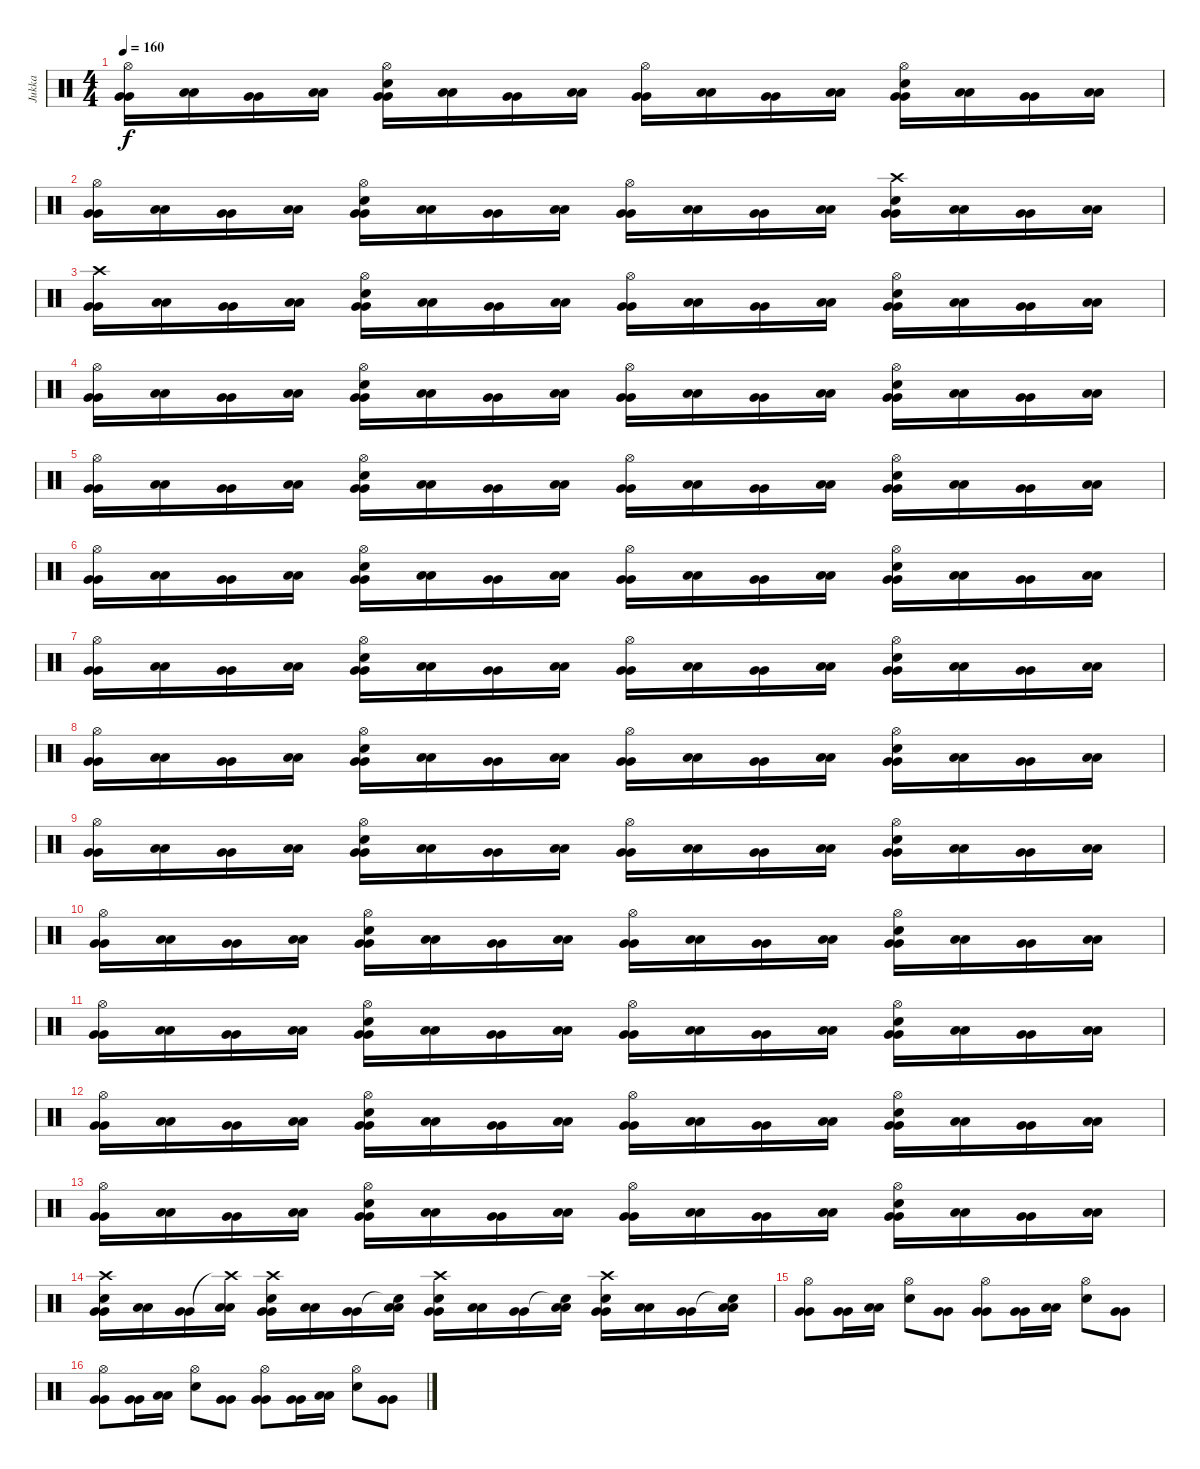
\track ("Jukka" "Jukka") {instrument percussion}
\staff {score}
\articulation defaults
\ts (4 4)
\tempo 160
\clef neutral
\ks c
("Hi-Hat (open)" "Very Low Tom (hit)" "Very Low Tom (hit)").16{dy f} ("Low Floor Tom (hit)" "Low Floor Tom (hit)").16 ("Very Low Tom (hit)" "Very Low Tom (hit)").16 ("Low Floor Tom (hit)" "Low Floor Tom (hit)").16 ("Hi-Hat (open)" "Electric Snare (hit)" "Very Low Tom (hit)" "Very Low Tom (hit)").16 ("Low Floor Tom (hit)" "Low Floor Tom (hit)").16 ("Very Low Tom (hit)" "Very Low Tom (hit)").16 ("Low Floor Tom (hit)" "Low Floor Tom (hit)").16 ("Hi-Hat (open)" "Very Low Tom (hit)" "Very Low Tom (hit)").16 ("Low Floor Tom (hit)" "Low Floor Tom (hit)").16 ("Very Low Tom (hit)" "Very Low Tom (hit)").16 ("Low Floor Tom (hit)" "Low Floor Tom (hit)").16 ("Hi-Hat (open)" "Electric Snare (hit)" "Very Low Tom (hit)" "Very Low Tom (hit)").16 ("Low Floor Tom (hit)" "Low Floor Tom (hit)").16 ("Very Low Tom (hit)" "Very Low Tom (hit)").16 ("Low Floor Tom (hit)" "Low Floor Tom (hit)").16 |
("Hi-Hat (open)" "Very Low Tom (hit)" "Very Low Tom (hit)").16 ("Low Floor Tom (hit)" "Low Floor Tom (hit)").16 ("Very Low Tom (hit)" "Very Low Tom (hit)").16 ("Low Floor Tom (hit)" "Low Floor Tom (hit)").16 ("Hi-Hat (open)" "Electric Snare (hit)" "Very Low Tom (hit)" "Very Low Tom (hit)").16 ("Low Floor Tom (hit)" "Low Floor Tom (hit)").16 ("Very Low Tom (hit)" "Very Low Tom (hit)").16 ("Low Floor Tom (hit)" "Low Floor Tom (hit)").16 ("Hi-Hat (open)" "Very Low Tom (hit)" "Very Low Tom (hit)").16 ("Low Floor Tom (hit)" "Low Floor Tom (hit)").16 ("Very Low Tom (hit)" "Very Low Tom (hit)").16 ("Low Floor Tom (hit)" "Low Floor Tom (hit)").16 ("Crash high (hit)" "Electric Snare (hit)" "Very Low Tom (hit)" "Very Low Tom (hit)").16 ("Low Floor Tom (hit)" "Low Floor Tom (hit)").16 ("Very Low Tom (hit)" "Very Low Tom (hit)").16 ("Low Floor Tom (hit)" "Low Floor Tom (hit)").16 |
("Crash high (hit)" "Very Low Tom (hit)" "Very Low Tom (hit)").16 ("Low Floor Tom (hit)" "Low Floor Tom (hit)").16 ("Very Low Tom (hit)" "Very Low Tom (hit)").16 ("Low Floor Tom (hit)" "Low Floor Tom (hit)").16 ("Hi-Hat (open)" "Electric Snare (hit)" "Very Low Tom (hit)" "Very Low Tom (hit)").16 ("Low Floor Tom (hit)" "Low Floor Tom (hit)").16 ("Very Low Tom (hit)" "Very Low Tom (hit)").16 ("Low Floor Tom (hit)" "Low Floor Tom (hit)").16 ("Hi-Hat (open)" "Very Low Tom (hit)" "Very Low Tom (hit)").16 ("Low Floor Tom (hit)" "Low Floor Tom (hit)").16 ("Very Low Tom (hit)" "Very Low Tom (hit)").16 ("Low Floor Tom (hit)" "Low Floor Tom (hit)").16 ("Hi-Hat (open)" "Electric Snare (hit)" "Very Low Tom (hit)" "Very Low Tom (hit)").16 ("Low Floor Tom (hit)" "Low Floor Tom (hit)").16 ("Very Low Tom (hit)" "Very Low Tom (hit)").16 ("Low Floor Tom (hit)" "Low Floor Tom (hit)").16 |
("Hi-Hat (open)" "Very Low Tom (hit)" "Very Low Tom (hit)").16 ("Low Floor Tom (hit)" "Low Floor Tom (hit)").16 ("Very Low Tom (hit)" "Very Low Tom (hit)").16 ("Low Floor Tom (hit)" "Low Floor Tom (hit)").16 ("Hi-Hat (open)" "Electric Snare (hit)" "Very Low Tom (hit)" "Very Low Tom (hit)").16 ("Low Floor Tom (hit)" "Low Floor Tom (hit)").16 ("Very Low Tom (hit)" "Very Low Tom (hit)").16 ("Low Floor Tom (hit)" "Low Floor Tom (hit)").16 ("Hi-Hat (open)" "Very Low Tom (hit)" "Very Low Tom (hit)").16 ("Low Floor Tom (hit)" "Low Floor Tom (hit)").16 ("Very Low Tom (hit)" "Very Low Tom (hit)").16 ("Low Floor Tom (hit)" "Low Floor Tom (hit)").16 ("Hi-Hat (open)" "Electric Snare (hit)" "Very Low Tom (hit)" "Very Low Tom (hit)").16 ("Low Floor Tom (hit)" "Low Floor Tom (hit)").16 ("Very Low Tom (hit)" "Very Low Tom (hit)").16 ("Low Floor Tom (hit)" "Low Floor Tom (hit)").16 |
("Hi-Hat (open)" "Very Low Tom (hit)" "Very Low Tom (hit)").16 ("Low Floor Tom (hit)" "Low Floor Tom (hit)").16 ("Very Low Tom (hit)" "Very Low Tom (hit)").16 ("Low Floor Tom (hit)" "Low Floor Tom (hit)").16 ("Hi-Hat (open)" "Electric Snare (hit)" "Very Low Tom (hit)" "Very Low Tom (hit)").16 ("Low Floor Tom (hit)" "Low Floor Tom (hit)").16 ("Very Low Tom (hit)" "Very Low Tom (hit)").16 ("Low Floor Tom (hit)" "Low Floor Tom (hit)").16 ("Hi-Hat (open)" "Very Low Tom (hit)" "Very Low Tom (hit)").16 ("Low Floor Tom (hit)" "Low Floor Tom (hit)").16 ("Very Low Tom (hit)" "Very Low Tom (hit)").16 ("Low Floor Tom (hit)" "Low Floor Tom (hit)").16 ("Hi-Hat (open)" "Electric Snare (hit)" "Very Low Tom (hit)" "Very Low Tom (hit)").16 ("Low Floor Tom (hit)" "Low Floor Tom (hit)").16 ("Very Low Tom (hit)" "Very Low Tom (hit)").16 ("Low Floor Tom (hit)" "Low Floor Tom (hit)").16 |
("Hi-Hat (open)" "Very Low Tom (hit)" "Very Low Tom (hit)").16 ("Low Floor Tom (hit)" "Low Floor Tom (hit)").16 ("Very Low Tom (hit)" "Very Low Tom (hit)").16 ("Low Floor Tom (hit)" "Low Floor Tom (hit)").16 ("Hi-Hat (open)" "Electric Snare (hit)" "Very Low Tom (hit)" "Very Low Tom (hit)").16 ("Low Floor Tom (hit)" "Low Floor Tom (hit)").16 ("Very Low Tom (hit)" "Very Low Tom (hit)").16 ("Low Floor Tom (hit)" "Low Floor Tom (hit)").16 ("Hi-Hat (open)" "Very Low Tom (hit)" "Very Low Tom (hit)").16 ("Low Floor Tom (hit)" "Low Floor Tom (hit)").16 ("Very Low Tom (hit)" "Very Low Tom (hit)").16 ("Low Floor Tom (hit)" "Low Floor Tom (hit)").16 ("Hi-Hat (open)" "Electric Snare (hit)" "Very Low Tom (hit)" "Very Low Tom (hit)").16 ("Low Floor Tom (hit)" "Low Floor Tom (hit)").16 ("Very Low Tom (hit)" "Very Low Tom (hit)").16 ("Low Floor Tom (hit)" "Low Floor Tom (hit)").16 |
("Hi-Hat (open)" "Very Low Tom (hit)" "Very Low Tom (hit)").16 ("Low Floor Tom (hit)" "Low Floor Tom (hit)").16 ("Very Low Tom (hit)" "Very Low Tom (hit)").16 ("Low Floor Tom (hit)" "Low Floor Tom (hit)").16 ("Hi-Hat (open)" "Electric Snare (hit)" "Very Low Tom (hit)" "Very Low Tom (hit)").16 ("Low Floor Tom (hit)" "Low Floor Tom (hit)").16 ("Very Low Tom (hit)" "Very Low Tom (hit)").16 ("Low Floor Tom (hit)" "Low Floor Tom (hit)").16 ("Hi-Hat (open)" "Very Low Tom (hit)" "Very Low Tom (hit)").16 ("Low Floor Tom (hit)" "Low Floor Tom (hit)").16 ("Very Low Tom (hit)" "Very Low Tom (hit)").16 ("Low Floor Tom (hit)" "Low Floor Tom (hit)").16 ("Hi-Hat (open)" "Electric Snare (hit)" "Very Low Tom (hit)" "Very Low Tom (hit)").16 ("Low Floor Tom (hit)" "Low Floor Tom (hit)").16 ("Very Low Tom (hit)" "Very Low Tom (hit)").16 ("Low Floor Tom (hit)" "Low Floor Tom (hit)").16 |
("Hi-Hat (open)" "Very Low Tom (hit)" "Very Low Tom (hit)").16 ("Low Floor Tom (hit)" "Low Floor Tom (hit)").16 ("Very Low Tom (hit)" "Very Low Tom (hit)").16 ("Low Floor Tom (hit)" "Low Floor Tom (hit)").16 ("Hi-Hat (open)" "Electric Snare (hit)" "Very Low Tom (hit)" "Very Low Tom (hit)").16 ("Low Floor Tom (hit)" "Low Floor Tom (hit)").16 ("Very Low Tom (hit)" "Very Low Tom (hit)").16 ("Low Floor Tom (hit)" "Low Floor Tom (hit)").16 ("Hi-Hat (open)" "Very Low Tom (hit)" "Very Low Tom (hit)").16 ("Low Floor Tom (hit)" "Low Floor Tom (hit)").16 ("Very Low Tom (hit)" "Very Low Tom (hit)").16 ("Low Floor Tom (hit)" "Low Floor Tom (hit)").16 ("Hi-Hat (open)" "Electric Snare (hit)" "Very Low Tom (hit)" "Very Low Tom (hit)").16 ("Low Floor Tom (hit)" "Low Floor Tom (hit)").16 ("Very Low Tom (hit)" "Very Low Tom (hit)").16 ("Low Floor Tom (hit)" "Low Floor Tom (hit)").16 |
("Hi-Hat (open)" "Very Low Tom (hit)" "Very Low Tom (hit)").16 ("Low Floor Tom (hit)" "Low Floor Tom (hit)").16 ("Very Low Tom (hit)" "Very Low Tom (hit)").16 ("Low Floor Tom (hit)" "Low Floor Tom (hit)").16 ("Hi-Hat (open)" "Electric Snare (hit)" "Very Low Tom (hit)" "Very Low Tom (hit)").16 ("Low Floor Tom (hit)" "Low Floor Tom (hit)").16 ("Very Low Tom (hit)" "Very Low Tom (hit)").16 ("Low Floor Tom (hit)" "Low Floor Tom (hit)").16 ("Hi-Hat (open)" "Very Low Tom (hit)" "Very Low Tom (hit)").16 ("Low Floor Tom (hit)" "Low Floor Tom (hit)").16 ("Very Low Tom (hit)" "Very Low Tom (hit)").16 ("Low Floor Tom (hit)" "Low Floor Tom (hit)").16 ("Hi-Hat (open)" "Electric Snare (hit)" "Very Low Tom (hit)" "Very Low Tom (hit)").16 ("Low Floor Tom (hit)" "Low Floor Tom (hit)").16 ("Very Low Tom (hit)" "Very Low Tom (hit)").16 ("Low Floor Tom (hit)" "Low Floor Tom (hit)").16 |
("Hi-Hat (open)" "Very Low Tom (hit)" "Very Low Tom (hit)").16 ("Low Floor Tom (hit)" "Low Floor Tom (hit)").16 ("Very Low Tom (hit)" "Very Low Tom (hit)").16 ("Low Floor Tom (hit)" "Low Floor Tom (hit)").16 ("Hi-Hat (open)" "Electric Snare (hit)" "Very Low Tom (hit)" "Very Low Tom (hit)").16 ("Low Floor Tom (hit)" "Low Floor Tom (hit)").16 ("Very Low Tom (hit)" "Very Low Tom (hit)").16 ("Low Floor Tom (hit)" "Low Floor Tom (hit)").16 ("Hi-Hat (open)" "Very Low Tom (hit)" "Very Low Tom (hit)").16 ("Low Floor Tom (hit)" "Low Floor Tom (hit)").16 ("Very Low Tom (hit)" "Very Low Tom (hit)").16 ("Low Floor Tom (hit)" "Low Floor Tom (hit)").16 ("Hi-Hat (open)" "Electric Snare (hit)" "Very Low Tom (hit)" "Very Low Tom (hit)").16 ("Low Floor Tom (hit)" "Low Floor Tom (hit)").16 ("Very Low Tom (hit)" "Very Low Tom (hit)").16 ("Low Floor Tom (hit)" "Low Floor Tom (hit)").16 |
("Hi-Hat (open)" "Very Low Tom (hit)" "Very Low Tom (hit)").16 ("Low Floor Tom (hit)" "Low Floor Tom (hit)").16 ("Very Low Tom (hit)" "Very Low Tom (hit)").16 ("Low Floor Tom (hit)" "Low Floor Tom (hit)").16 ("Hi-Hat (open)" "Electric Snare (hit)" "Very Low Tom (hit)" "Very Low Tom (hit)").16 ("Low Floor Tom (hit)" "Low Floor Tom (hit)").16 ("Very Low Tom (hit)" "Very Low Tom (hit)").16 ("Low Floor Tom (hit)" "Low Floor Tom (hit)").16 ("Hi-Hat (open)" "Very Low Tom (hit)" "Very Low Tom (hit)").16 ("Low Floor Tom (hit)" "Low Floor Tom (hit)").16 ("Very Low Tom (hit)" "Very Low Tom (hit)").16 ("Low Floor Tom (hit)" "Low Floor Tom (hit)").16 ("Hi-Hat (open)" "Electric Snare (hit)" "Very Low Tom (hit)" "Very Low Tom (hit)").16 ("Low Floor Tom (hit)" "Low Floor Tom (hit)").16 ("Very Low Tom (hit)" "Very Low Tom (hit)").16 ("Low Floor Tom (hit)" "Low Floor Tom (hit)").16 |
("Hi-Hat (open)" "Very Low Tom (hit)" "Very Low Tom (hit)").16 ("Low Floor Tom (hit)" "Low Floor Tom (hit)").16 ("Very Low Tom (hit)" "Very Low Tom (hit)").16 ("Low Floor Tom (hit)" "Low Floor Tom (hit)").16 ("Hi-Hat (open)" "Electric Snare (hit)" "Very Low Tom (hit)" "Very Low Tom (hit)").16 ("Low Floor Tom (hit)" "Low Floor Tom (hit)").16 ("Very Low Tom (hit)" "Very Low Tom (hit)").16 ("Low Floor Tom (hit)" "Low Floor Tom (hit)").16 ("Hi-Hat (open)" "Very Low Tom (hit)" "Very Low Tom (hit)").16 ("Low Floor Tom (hit)" "Low Floor Tom (hit)").16 ("Very Low Tom (hit)" "Very Low Tom (hit)").16 ("Low Floor Tom (hit)" "Low Floor Tom (hit)").16 ("Hi-Hat (open)" "Electric Snare (hit)" "Very Low Tom (hit)" "Very Low Tom (hit)").16 ("Low Floor Tom (hit)" "Low Floor Tom (hit)").16 ("Very Low Tom (hit)" "Very Low Tom (hit)").16 ("Low Floor Tom (hit)" "Low Floor Tom (hit)").16 |
("Hi-Hat (open)" "Very Low Tom (hit)" "Very Low Tom (hit)").16 ("Low Floor Tom (hit)" "Low Floor Tom (hit)").16 ("Very Low Tom (hit)" "Very Low Tom (hit)").16 ("Low Floor Tom (hit)" "Low Floor Tom (hit)").16 ("Hi-Hat (open)" "Electric Snare (hit)" "Very Low Tom (hit)" "Very Low Tom (hit)").16 ("Low Floor Tom (hit)" "Low Floor Tom (hit)").16 ("Very Low Tom (hit)" "Very Low Tom (hit)").16 ("Low Floor Tom (hit)" "Low Floor Tom (hit)").16 ("Hi-Hat (open)" "Very Low Tom (hit)" "Very Low Tom (hit)").16 ("Low Floor Tom (hit)" "Low Floor Tom (hit)").16 ("Very Low Tom (hit)" "Very Low Tom (hit)").16 ("Low Floor Tom (hit)" "Low Floor Tom (hit)").16 ("Hi-Hat (open)" "Electric Snare (hit)" "Very Low Tom (hit)" "Very Low Tom (hit)").16 ("Low Floor Tom (hit)" "Low Floor Tom (hit)").16 ("Very Low Tom (hit)" "Very Low Tom (hit)").16 ("Low Floor Tom (hit)" "Low Floor Tom (hit)").16 |
("Crash high (hit)" "Electric Snare (hit)" "Very Low Tom (hit)" "Very Low Tom (hit)").16 ("Low Floor Tom (hit)" "Low Floor Tom (hit)").16 ("Very Low Tom (hit)" "Very Low Tom (hit)").16 ("Crash high (hit)"{t} "Low Floor Tom (hit)" "Low Floor Tom (hit)").16 ("Crash high (hit)" "Electric Snare (hit)" "Very Low Tom (hit)" "Very Low Tom (hit)").16 ("Low Floor Tom (hit)" "Low Floor Tom (hit)").16 ("Very Low Tom (hit)" "Very Low Tom (hit)").16 ("Snare (hit)"{t} "Low Floor Tom (hit)" "Low Floor Tom (hit)").16 ("Crash high (hit)" "Electric Snare (hit)" "Very Low Tom (hit)" "Very Low Tom (hit)").16 ("Low Floor Tom (hit)" "Low Floor Tom (hit)").16 ("Very Low Tom (hit)" "Very Low Tom (hit)").16 ("Snare (hit)"{t} "Low Floor Tom (hit)" "Low Floor Tom (hit)").16 ("Crash high (hit)" "Electric Snare (hit)" "Very Low Tom (hit)" "Very Low Tom (hit)").16 ("Low Floor Tom (hit)" "Low Floor Tom (hit)").16 ("Very Low Tom (hit)" "Very Low Tom (hit)").16 ("Snare (hit)"{t} "Low Floor Tom (hit)" "Low Floor Tom (hit)").16 |
("Hi-Hat (open)" "Very Low Tom (hit)" "Very Low Tom (hit)").8 ("Very Low Tom (hit)" "Very Low Tom (hit)").16 ("Low Floor Tom (hit)" "Low Floor Tom (hit)").16 ("Hi-Hat (open)" "Electric Snare (hit)").8 ("Very Low Tom (hit)" "Very Low Tom (hit)").8 ("Hi-Hat (open)" "Very Low Tom (hit)" "Very Low Tom (hit)").8 ("Very Low Tom (hit)" "Very Low Tom (hit)").16 ("Low Floor Tom (hit)" "Low Floor Tom (hit)").16 ("Hi-Hat (open)" "Electric Snare (hit)").8 ("Very Low Tom (hit)" "Very Low Tom (hit)").8 |
("Hi-Hat (open)" "Very Low Tom (hit)" "Very Low Tom (hit)").8 ("Very Low Tom (hit)" "Very Low Tom (hit)").16 ("Low Floor Tom (hit)" "Low Floor Tom (hit)").16 ("Hi-Hat (open)" "Electric Snare (hit)").8 ("Very Low Tom (hit)" "Very Low Tom (hit)").8 ("Hi-Hat (open)" "Very Low Tom (hit)" "Very Low Tom (hit)").8 ("Very Low Tom (hit)" "Very Low Tom (hit)").16 ("Low Floor Tom (hit)" "Low Floor Tom (hit)").16 ("Hi-Hat (open)" "Electric Snare (hit)").8 ("Very Low Tom (hit)" "Very Low Tom (hit)").8
